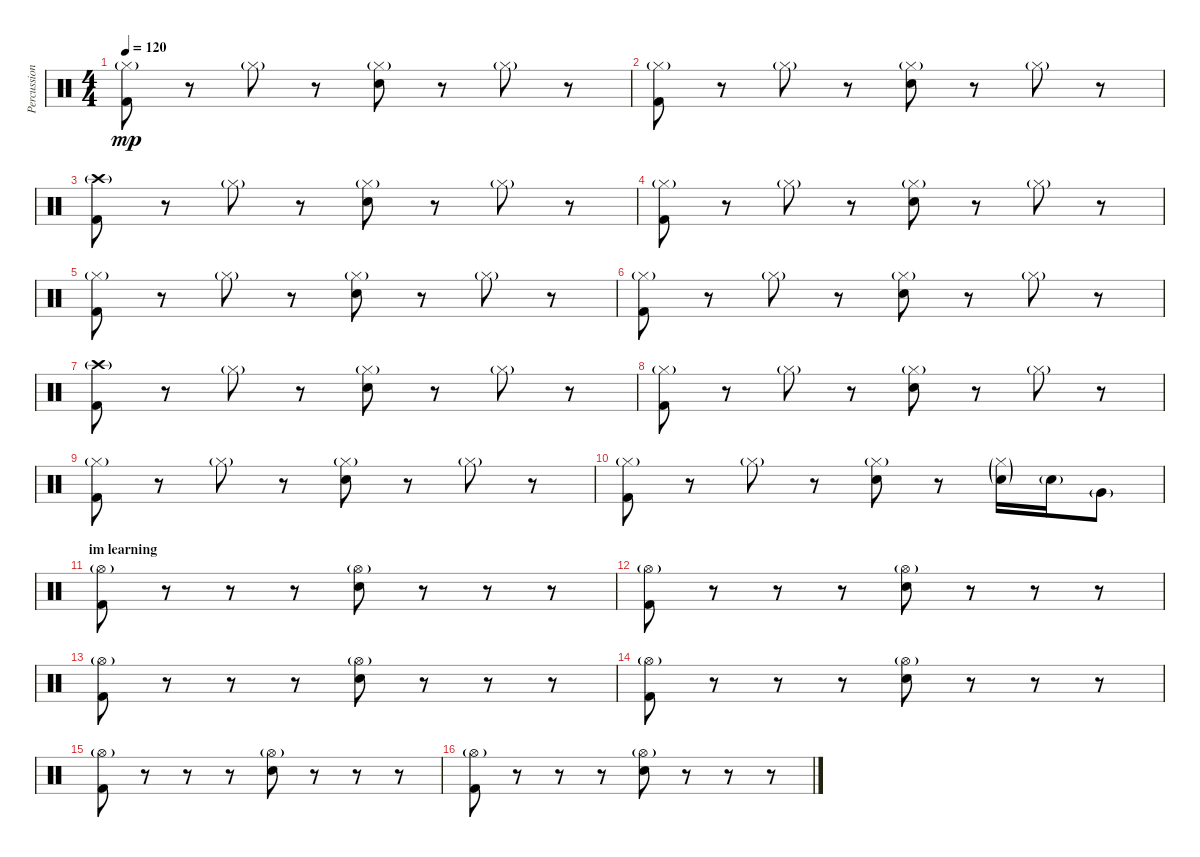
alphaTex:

\track ("Percussion" "Percussion") {instrument percussion}
\staff {score}
\articulation defaults
\ts (4 4)
\tempo 120
\clef neutral
\ks c
("Hi-Hat (closed)"{g} "Kick (hit) 2").8{dy mp} r.8 "Hi-Hat (closed)"{g}.8 r.8 ("Hi-Hat (closed)"{g} "Electric Snare (hit)").8 r.8 "Hi-Hat (closed)"{g}.8 r.8 |
("Hi-Hat (closed)"{g} "Kick (hit) 2").8 r.8 "Hi-Hat (closed)"{g}.8 r.8 ("Hi-Hat (closed)"{g} "Electric Snare (hit)").8 r.8 "Hi-Hat (closed)"{g}.8 r.8 |
("Crash high (hit)"{g} "Kick (hit) 2").8 r.8 "Hi-Hat (closed)"{g}.8 r.8 ("Hi-Hat (closed)"{g} "Electric Snare (hit)").8 r.8 "Hi-Hat (closed)"{g}.8 r.8 |
("Hi-Hat (closed)"{g} "Kick (hit) 2").8 r.8 "Hi-Hat (closed)"{g}.8 r.8 ("Hi-Hat (closed)"{g} "Electric Snare (hit)").8 r.8 "Hi-Hat (closed)"{g}.8 r.8 |
("Hi-Hat (closed)"{g} "Kick (hit) 2").8 r.8 "Hi-Hat (closed)"{g}.8 r.8 ("Hi-Hat (closed)"{g} "Electric Snare (hit)").8 r.8 "Hi-Hat (closed)"{g}.8 r.8 |
("Hi-Hat (closed)"{g} "Kick (hit) 2").8 r.8 "Hi-Hat (closed)"{g}.8 r.8 ("Hi-Hat (closed)"{g} "Electric Snare (hit)").8 r.8 "Hi-Hat (closed)"{g}.8 r.8 |
("Crash high (hit)"{g} "Kick (hit) 2").8 r.8 "Hi-Hat (closed)"{g}.8 r.8 ("Hi-Hat (closed)"{g} "Electric Snare (hit)").8 r.8 "Hi-Hat (closed)"{g}.8 r.8 |
("Hi-Hat (closed)"{g} "Kick (hit) 2").8 r.8 "Hi-Hat (closed)"{g}.8 r.8 ("Hi-Hat (closed)"{g} "Electric Snare (hit)").8 r.8 "Hi-Hat (closed)"{g}.8 r.8 |
("Hi-Hat (closed)"{g} "Kick (hit) 2").8 r.8 "Hi-Hat (closed)"{g}.8 r.8 ("Hi-Hat (closed)"{g} "Electric Snare (hit)").8 r.8 "Hi-Hat (closed)"{g}.8 r.8 |
("Hi-Hat (closed)"{g} "Kick (hit) 2").8 r.8 "Hi-Hat (closed)"{g}.8 r.8 ("Hi-Hat (closed)"{g} "Electric Snare (hit)").8 r.8 ("Hi-Hat (closed)"{g} "Electric Snare (hit)"{g}).16 "Electric Snare (hit)"{g}.16 "Very Low Tom (hit)"{g}.8 |
\section ("" "im learning")
("Hi-Hat (open)"{g} "Kick (hit) 2").8 r.8 r.8 r.8 ("Hi-Hat (open)"{g} "Electric Snare (hit)").8 r.8 r.8 r.8 |
("Hi-Hat (open)"{g} "Kick (hit) 2").8 r.8 r.8 r.8 ("Hi-Hat (open)"{g} "Electric Snare (hit)").8 r.8 r.8 r.8 |
("Hi-Hat (open)"{g} "Kick (hit) 2").8 r.8 r.8 r.8 ("Hi-Hat (open)"{g} "Electric Snare (hit)").8 r.8 r.8 r.8 |
("Hi-Hat (open)"{g} "Kick (hit) 2").8 r.8 r.8 r.8 ("Hi-Hat (open)"{g} "Electric Snare (hit)").8 r.8 r.8 r.8 |
("Hi-Hat (open)"{g} "Kick (hit) 2").8 r.8 r.8 r.8 ("Hi-Hat (open)"{g} "Electric Snare (hit)").8 r.8 r.8 r.8 |
("Hi-Hat (open)"{g} "Kick (hit) 2").8 r.8 r.8 r.8 ("Hi-Hat (open)"{g} "Electric Snare (hit)").8 r.8 r.8 r.8
